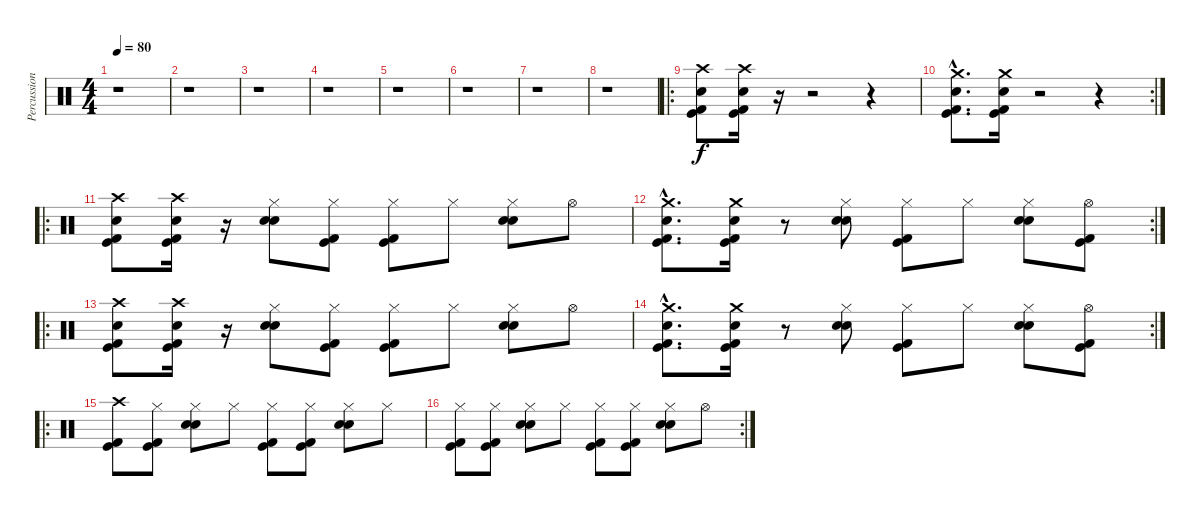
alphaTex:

\track ("Percussion" "Percussion") {instrument percussion}
\staff {score}
\articulation defaults
\ts (4 4)
\tempo 80
\clef neutral
\ks c
r.1{dy f} |
r.1 |
r.1 |
r.1 |
r.1 |
r.1 |
r.1 |
r.1 |
\ro
("Crash high (hit)" "Snare (hit) 2" "Kick (hit) 2" "Kick (hit)").8 ("Crash high (hit)" "Snare (hit) 2" "Kick (hit) 2" "Kick (hit)").16 r.16 r.2 r.4 |
\rc 2
("Crash medium (hit)"{hac} "Snare (hit) 2"{hac} "Kick (hit) 2"{hac} "Kick (hit)"{hac}).8{d} ("Crash medium (hit)" "Snare (hit) 2" "Kick (hit) 2" "Kick (hit)").16 r.2 r.4 |
\ro
("Crash high (hit)" "Snare (hit) 2" "Kick (hit) 2" "Kick (hit)").8 ("Crash high (hit)" "Snare (hit) 2" "Kick (hit) 2" "Kick (hit)").16 r.16 ("Hi-Hat (closed)" "Electric Snare (hit)" "Snare (hit) 2").8 ("Hi-Hat (closed)" "Kick (hit) 2" "Kick (hit)").8 ("Hi-Hat (closed)" "Kick (hit) 2" "Kick (hit)").8 "Hi-Hat (closed)".8 ("Hi-Hat (closed)" "Electric Snare (hit)" "Snare (hit) 2").8 "Hi-Hat (open)".8 |
\rc 2
("Crash medium (hit)"{hac} "Snare (hit) 2"{hac} "Kick (hit) 2"{hac} "Kick (hit)"{hac}).8{d} ("Crash medium (hit)" "Snare (hit) 2" "Kick (hit) 2" "Kick (hit)").16 r.8 ("Hi-Hat (closed)" "Electric Snare (hit)" "Snare (hit) 2").8 ("Hi-Hat (closed)" "Kick (hit) 2" "Kick (hit)").8 "Hi-Hat (closed)".8 ("Hi-Hat (closed)" "Electric Snare (hit)" "Snare (hit) 2").8 ("Hi-Hat (open)" "Kick (hit) 2" "Kick (hit)").8 |
\ro
("Crash high (hit)" "Snare (hit) 2" "Kick (hit) 2" "Kick (hit)").8 ("Crash high (hit)" "Snare (hit) 2" "Kick (hit) 2" "Kick (hit)").16 r.16 ("Hi-Hat (closed)" "Electric Snare (hit)" "Snare (hit) 2").8 ("Hi-Hat (closed)" "Kick (hit) 2" "Kick (hit)").8 ("Hi-Hat (closed)" "Kick (hit) 2" "Kick (hit)").8 "Hi-Hat (closed)".8 ("Hi-Hat (closed)" "Electric Snare (hit)" "Snare (hit) 2").8 "Hi-Hat (open)".8 |
\rc 2
("Crash medium (hit)"{hac} "Snare (hit) 2"{hac} "Kick (hit) 2"{hac} "Kick (hit)"{hac}).8{d} ("Crash medium (hit)" "Snare (hit) 2" "Kick (hit) 2" "Kick (hit)").16 r.8 ("Hi-Hat (closed)" "Electric Snare (hit)" "Snare (hit) 2").8 ("Hi-Hat (closed)" "Kick (hit) 2" "Kick (hit)").8 "Hi-Hat (closed)".8 ("Hi-Hat (closed)" "Electric Snare (hit)" "Snare (hit) 2").8 ("Hi-Hat (open)" "Kick (hit) 2" "Kick (hit)").8 |
\ro
("Crash high (hit)" "Kick (hit) 2" "Kick (hit)").8 ("Hi-Hat (closed)" "Kick (hit) 2" "Kick (hit)").8 ("Hi-Hat (closed)" "Electric Snare (hit)" "Snare (hit) 2").8 "Hi-Hat (closed)".8 ("Hi-Hat (closed)" "Kick (hit) 2" "Kick (hit)").8 ("Hi-Hat (closed)" "Kick (hit) 2" "Kick (hit)").8 ("Hi-Hat (closed)" "Electric Snare (hit)" "Snare (hit) 2").8 "Hi-Hat (closed)".8 |
\rc 2
("Hi-Hat (closed)" "Kick (hit) 2" "Kick (hit)").8 ("Hi-Hat (closed)" "Kick (hit) 2" "Kick (hit)").8 ("Hi-Hat (closed)" "Electric Snare (hit)" "Snare (hit) 2").8 "Hi-Hat (closed)".8 ("Hi-Hat (closed)" "Kick (hit) 2" "Kick (hit)").8 ("Hi-Hat (closed)" "Kick (hit) 2" "Kick (hit)").8 ("Hi-Hat (closed)" "Electric Snare (hit)" "Snare (hit) 2").8 "Hi-Hat (open)".8
